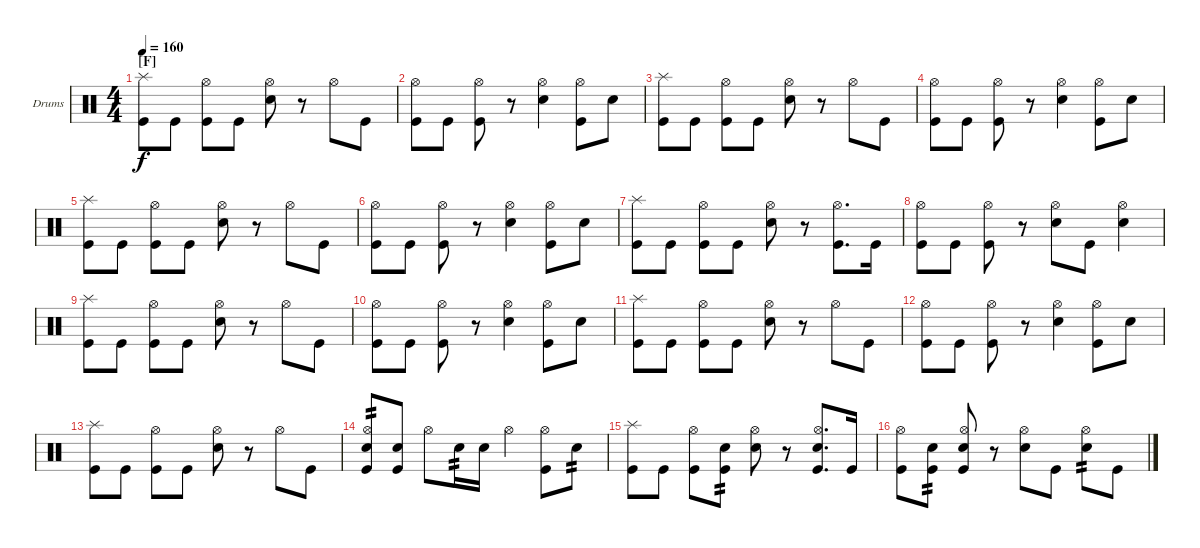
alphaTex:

\defaultSystemsLayout 4
\bracketExtendMode groupsimilarinstruments
\firstSystemTrackNameOrientation horizontal
\otherSystemsTrackNameOrientation horizontal
\track ("Drumkit" "Drums") {instrument percussion}
\staff {score}
\articulation defaults
\ts (4 4)
\section ("F" "")
\tempo 160
\clef neutral
\ks c
("Splash (hit)" "Kick (hit)").8{dy f} "Kick (hit)".8 ("Hi-Hat (open)" "Kick (hit)").8 "Kick (hit)".8 ("Hi-Hat (open)" "Snare (hit) 2").8 r.8 "Hi-Hat (open)".8 "Kick (hit)".8 |
("Hi-Hat (open)" "Kick (hit)").8 "Kick (hit)".8 ("Hi-Hat (open)" "Kick (hit)").8 r.8 ("Snare (hit) 2" "Hi-Hat (open)").4 ("Hi-Hat (open)" "Kick (hit)").8 "Snare (hit) 2".8 |
("Splash (hit)" "Kick (hit)").8 "Kick (hit)".8 ("Hi-Hat (open)" "Kick (hit)").8 "Kick (hit)".8 ("Hi-Hat (open)" "Snare (hit) 2").8 r.8 "Hi-Hat (open)".8 "Kick (hit)".8 |
("Hi-Hat (open)" "Kick (hit)").8 "Kick (hit)".8 ("Hi-Hat (open)" "Kick (hit)").8 r.8 ("Snare (hit) 2" "Hi-Hat (open)").4 ("Hi-Hat (open)" "Kick (hit)").8 "Snare (hit) 2".8 |
("Splash (hit)" "Kick (hit)").8 "Kick (hit)".8 ("Hi-Hat (open)" "Kick (hit)").8 "Kick (hit)".8 ("Hi-Hat (open)" "Snare (hit) 2").8 r.8 "Hi-Hat (open)".8 "Kick (hit)".8 |
("Hi-Hat (open)" "Kick (hit)").8 "Kick (hit)".8 ("Hi-Hat (open)" "Kick (hit)").8 r.8 ("Snare (hit) 2" "Hi-Hat (open)").4 ("Hi-Hat (open)" "Kick (hit)").8 "Snare (hit) 2".8 |
("Splash (hit)" "Kick (hit)").8 "Kick (hit)".8 ("Hi-Hat (open)" "Kick (hit)").8 "Kick (hit)".8 ("Hi-Hat (open)" "Snare (hit) 2").8 r.8 ("Hi-Hat (open)" "Kick (hit)").8{d} "Kick (hit)".16 |
("Hi-Hat (open)" "Kick (hit)").8 "Kick (hit)".8 ("Hi-Hat (open)" "Kick (hit)").8 r.8 ("Hi-Hat (open)" "Snare (hit) 2").8 "Kick (hit)".8 ("Snare (hit) 2" "Hi-Hat (open)").4 |
("Splash (hit)" "Kick (hit)").8 "Kick (hit)".8 ("Hi-Hat (open)" "Kick (hit)").8 "Kick (hit)".8 ("Hi-Hat (open)" "Snare (hit) 2").8 r.8 "Hi-Hat (open)".8 "Kick (hit)".8 |
("Hi-Hat (open)" "Kick (hit)").8 "Kick (hit)".8 ("Hi-Hat (open)" "Kick (hit)").8 r.8 ("Snare (hit) 2" "Hi-Hat (open)").4 ("Hi-Hat (open)" "Kick (hit)").8 "Snare (hit) 2".8 |
("Splash (hit)" "Kick (hit)").8 "Kick (hit)".8 ("Hi-Hat (open)" "Kick (hit)").8 "Kick (hit)".8 ("Hi-Hat (open)" "Snare (hit) 2").8 r.8 "Hi-Hat (open)".8 "Kick (hit)".8 |
("Hi-Hat (open)" "Kick (hit)").8 "Kick (hit)".8 ("Hi-Hat (open)" "Kick (hit)").8 r.8 ("Snare (hit) 2" "Hi-Hat (open)").4 ("Hi-Hat (open)" "Kick (hit)").8 "Snare (hit) 2".8 |
("Splash (hit)" "Kick (hit)").8 "Kick (hit)".8 ("Hi-Hat (open)" "Kick (hit)").8 "Kick (hit)".8 ("Hi-Hat (open)" "Snare (hit) 2").8 r.8 "Hi-Hat (open)".8 "Kick (hit)".8 |
("Hi-Hat (open)" "Kick (hit)" "Snare (hit) 2").8{tp 2} ("Kick (hit)" "Snare (hit) 2").8 "Hi-Hat (open)".8 "Snare (hit) 2".16{tp 2} "Snare (hit) 2".16 "Hi-Hat (open)".4 ("Hi-Hat (open)" "Kick (hit)").8 "Snare (hit) 2".8{tp 2} |
("Splash (hit)" "Kick (hit)").8 "Kick (hit)".8 ("Hi-Hat (open)" "Kick (hit)").8 ("Kick (hit)" "Snare (hit) 2").8{tp 2} ("Hi-Hat (open)" "Snare (hit) 2").8 r.8 ("Hi-Hat (open)" "Kick (hit)" "Snare (hit) 2").8{d} "Kick (hit)".16 |
("Hi-Hat (open)" "Kick (hit)").8 ("Kick (hit)" "Snare (hit) 2").8{tp 2} ("Hi-Hat (open)" "Kick (hit)" "Snare (hit) 2").8 r.8 ("Hi-Hat (open)" "Snare (hit) 2").8 "Kick (hit)".8 ("Snare (hit) 2" "Hi-Hat (open)").8{tp 2} "Kick (hit)".8
